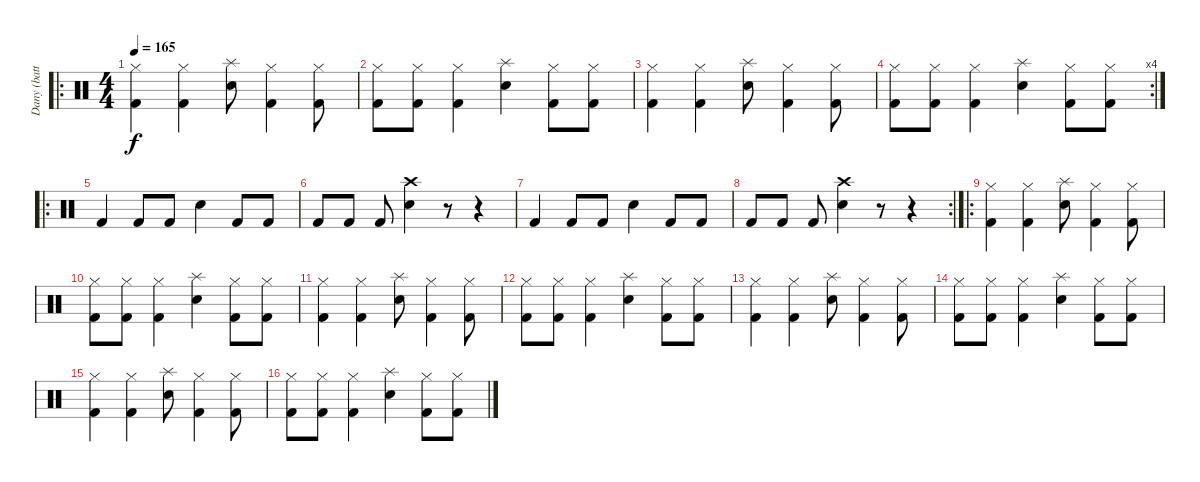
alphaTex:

\track ("Dany (batterie)" "Dany (batt") {instrument percussion}
\staff {score}
\articulation defaults
\ro
\ts (4 4)
\tempo 165
\clef neutral
\ks c
("Hi-Hat (closed)" "Kick (hit) 2").4{dy f} ("Hi-Hat (closed)" "Kick (hit) 2").4 ("Splash (hit)" "Snare (hit) 2").8 ("Hi-Hat (closed)" "Kick (hit) 2").4 ("Hi-Hat (closed)" "Kick (hit) 2").8 |
("Hi-Hat (closed)" "Kick (hit) 2").8 ("Hi-Hat (closed)" "Kick (hit) 2").8 ("Hi-Hat (closed)" "Kick (hit) 2").4 ("Splash (hit)" "Snare (hit) 2").4 ("Hi-Hat (closed)" "Kick (hit) 2").8 ("Hi-Hat (closed)" "Kick (hit) 2").8 |
("Hi-Hat (closed)" "Kick (hit) 2").4 ("Hi-Hat (closed)" "Kick (hit) 2").4 ("Splash (hit)" "Snare (hit) 2").8 ("Hi-Hat (closed)" "Kick (hit) 2").4 ("Hi-Hat (closed)" "Kick (hit) 2").8 |
\rc 4
("Hi-Hat (closed)" "Kick (hit) 2").8 ("Hi-Hat (closed)" "Kick (hit) 2").8 ("Hi-Hat (closed)" "Kick (hit) 2").4 ("Splash (hit)" "Snare (hit) 2").4 ("Hi-Hat (closed)" "Kick (hit) 2").8 ("Hi-Hat (closed)" "Kick (hit) 2").8 |
\ro "Kick (hit) 2".4 "Kick (hit) 2".8 "Kick (hit) 2".8 "Snare (hit) 2".4 "Kick (hit) 2".8 "Kick (hit) 2".8
|
"Kick (hit) 2".8 "Kick (hit) 2".8 "Kick (hit) 2".8 ("Crash high (hit)" "Snare (hit) 2").4 r.8 r.4 |
"Kick (hit) 2".4 "Kick (hit) 2".8 "Kick (hit) 2".8 "Snare (hit) 2".4 "Kick (hit) 2".8 "Kick (hit) 2".8 |
\rc 2 "Kick (hit) 2".8 "Kick (hit) 2".8 "Kick (hit) 2".8
("Crash high (hit)" "Snare (hit) 2").4 r.8 r.4 |
\ro
("Hi-Hat (closed)" "Kick (hit) 2").4 ("Hi-Hat (closed)" "Kick (hit) 2").4 ("Splash (hit)" "Snare (hit) 2").8 ("Hi-Hat (closed)" "Kick (hit) 2").4 ("Hi-Hat (closed)" "Kick (hit) 2").8 |
("Hi-Hat (closed)" "Kick (hit) 2").8 ("Hi-Hat (closed)" "Kick (hit) 2").8 ("Hi-Hat (closed)" "Kick (hit) 2").4 ("Splash (hit)" "Snare (hit) 2").4 ("Hi-Hat (closed)" "Kick (hit) 2").8 ("Hi-Hat (closed)" "Kick (hit) 2").8 |
("Hi-Hat (closed)" "Kick (hit) 2").4 ("Hi-Hat (closed)" "Kick (hit) 2").4 ("Splash (hit)" "Snare (hit) 2").8 ("Hi-Hat (closed)" "Kick (hit) 2").4 ("Hi-Hat (closed)" "Kick (hit) 2").8 |
("Hi-Hat (closed)" "Kick (hit) 2").8 ("Hi-Hat (closed)" "Kick (hit) 2").8 ("Hi-Hat (closed)" "Kick (hit) 2").4 ("Splash (hit)" "Snare (hit) 2").4 ("Hi-Hat (closed)" "Kick (hit) 2").8 ("Hi-Hat (closed)" "Kick (hit) 2").8 |
("Hi-Hat (closed)" "Kick (hit) 2").4 ("Hi-Hat (closed)" "Kick (hit) 2").4 ("Splash (hit)" "Snare (hit) 2").8 ("Hi-Hat (closed)" "Kick (hit) 2").4 ("Hi-Hat (closed)" "Kick (hit) 2").8 |
("Hi-Hat (closed)" "Kick (hit) 2").8 ("Hi-Hat (closed)" "Kick (hit) 2").8 ("Hi-Hat (closed)" "Kick (hit) 2").4 ("Splash (hit)" "Snare (hit) 2").4 ("Hi-Hat (closed)" "Kick (hit) 2").8 ("Hi-Hat (closed)" "Kick (hit) 2").8 |
("Hi-Hat (closed)" "Kick (hit) 2").4 ("Hi-Hat (closed)" "Kick (hit) 2").4 ("Splash (hit)" "Snare (hit) 2").8 ("Hi-Hat (closed)" "Kick (hit) 2").4 ("Hi-Hat (closed)" "Kick (hit) 2").8 |
("Hi-Hat (closed)" "Kick (hit) 2").8 ("Hi-Hat (closed)" "Kick (hit) 2").8 ("Hi-Hat (closed)" "Kick (hit) 2").4 ("Splash (hit)" "Snare (hit) 2").4 ("Hi-Hat (closed)" "Kick (hit) 2").8 ("Hi-Hat (closed)" "Kick (hit) 2").8
